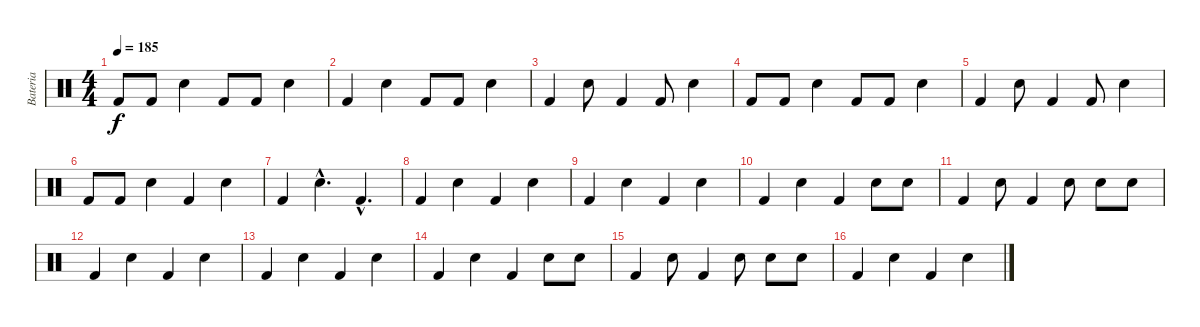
\track ("Bateria" "Bateria") {instrument percussion}
\staff {score}
\articulation defaults
\ts (4 4)
\tempo 185
\clef neutral
\ks c "Kick (hit) 2".8{dy f} "Kick (hit) 2".8 "Snare (hit) 2".4 "Kick (hit) 2".8 "Kick (hit) 2".8 "Snare (hit) 2".4
|
"Kick (hit) 2".4 "Snare (hit) 2".4 "Kick (hit) 2".8 "Kick (hit) 2".8 "Snare (hit) 2".4 |
"Kick (hit) 2".4 "Snare (hit) 2".8 "Kick (hit) 2".4 "Kick (hit) 2".8 "Snare (hit) 2".4 |
"Kick (hit) 2".8 "Kick (hit) 2".8 "Snare (hit) 2".4 "Kick (hit) 2".8 "Kick (hit) 2".8 "Snare (hit) 2".4 |
"Kick (hit) 2".4 "Snare (hit) 2".8 "Kick (hit) 2".4 "Kick (hit) 2".8 "Snare (hit) 2".4 |
"Kick (hit) 2".8 "Kick (hit) 2".8 "Snare (hit) 2".4 "Kick (hit) 2".4 "Snare (hit) 2".4 |
"Kick (hit) 2".4 "Snare (hit) 2"{hac}.4{d} "Kick (hit) 2"{hac}.4{d} |
"Kick (hit) 2".4 "Snare (hit) 2".4 "Kick (hit) 2".4 "Snare (hit) 2".4 |
"Kick (hit) 2".4 "Snare (hit) 2".4 "Kick (hit) 2".4 "Snare (hit) 2".4 |
"Kick (hit) 2".4 "Snare (hit) 2".4 "Kick (hit) 2".4 "Snare (hit) 2".8 "Snare (hit) 2".8 |
"Kick (hit) 2".4 "Snare (hit) 2".8 "Kick (hit) 2".4 "Snare (hit) 2".8 "Snare (hit) 2".8 "Snare (hit) 2".8 |
"Kick (hit) 2".4 "Snare (hit) 2".4 "Kick (hit) 2".4 "Snare (hit) 2".4 |
"Kick (hit) 2".4 "Snare (hit) 2".4 "Kick (hit) 2".4 "Snare (hit) 2".4 |
"Kick (hit) 2".4 "Snare (hit) 2".4 "Kick (hit) 2".4 "Snare (hit) 2".8 "Snare (hit) 2".8 |
"Kick (hit) 2".4 "Snare (hit) 2".8 "Kick (hit) 2".4 "Snare (hit) 2".8 "Snare (hit) 2".8 "Snare (hit) 2".8 |
"Kick (hit) 2".4 "Snare (hit) 2".4 "Kick (hit) 2".4 "Snare (hit) 2".4
